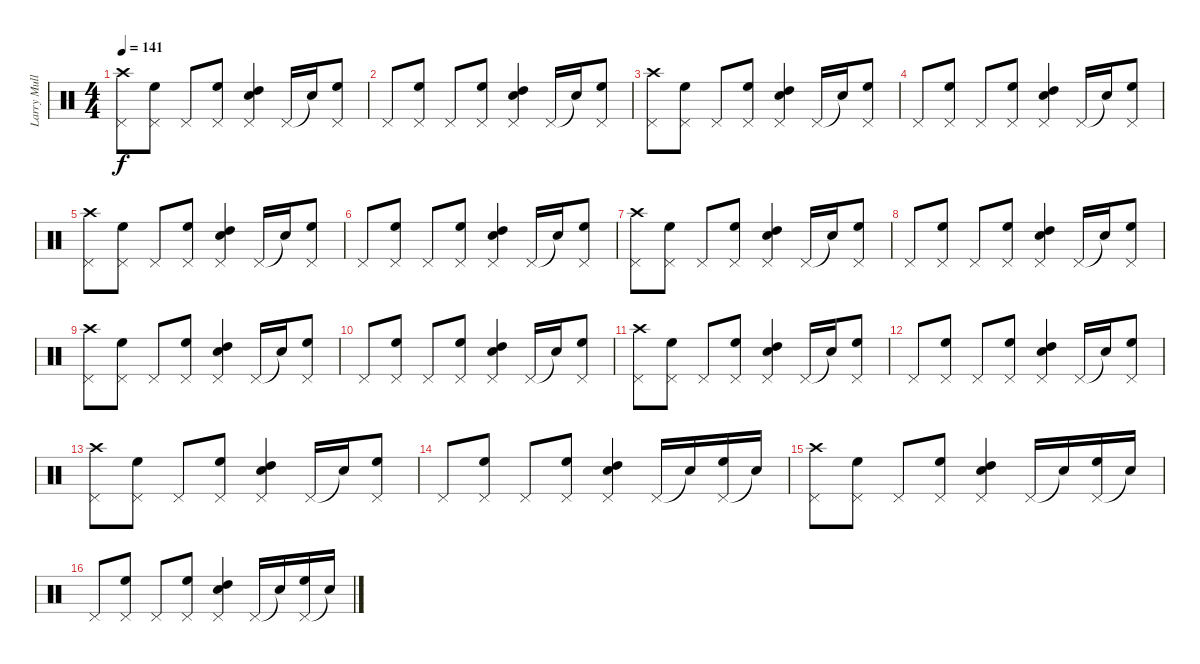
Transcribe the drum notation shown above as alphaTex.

\track ("Larry Mullen Jr's Drums" "Larry Mull") {instrument percussion}
\staff {score}
\articulation defaults
\ts (4 4)
\tempo 141
\clef neutral
\ks c
("Pedal Hi-Hat (hit)" "Crash high (hit)").8{dy f} ("Pedal Hi-Hat (hit)" "High Floor Tom (hit)").8 "Pedal Hi-Hat (hit)".8 ("Pedal Hi-Hat (hit)" "High Floor Tom (hit)").8 ("Pedal Hi-Hat (hit)" "High Tom (hit)" "Electric Snare (hit)").4 "Pedal Hi-Hat (hit)".16 "Snare (hit)"{t}.16 ("Pedal Hi-Hat (hit)" "High Floor Tom (hit)").8 |
"Pedal Hi-Hat (hit)".8 ("Pedal Hi-Hat (hit)" "High Floor Tom (hit)").8 "Pedal Hi-Hat (hit)".8 ("Pedal Hi-Hat (hit)" "High Floor Tom (hit)").8 ("Pedal Hi-Hat (hit)" "High Tom (hit)" "Electric Snare (hit)").4 "Pedal Hi-Hat (hit)".16 "Snare (hit)"{t}.16 ("Pedal Hi-Hat (hit)" "High Floor Tom (hit)").8 |
("Pedal Hi-Hat (hit)" "Crash high (hit)").8 ("Pedal Hi-Hat (hit)" "High Floor Tom (hit)").8 "Pedal Hi-Hat (hit)".8 ("Pedal Hi-Hat (hit)" "High Floor Tom (hit)").8 ("Pedal Hi-Hat (hit)" "High Tom (hit)" "Electric Snare (hit)").4 "Pedal Hi-Hat (hit)".16 "Snare (hit)"{t}.16 ("Pedal Hi-Hat (hit)" "High Floor Tom (hit)").8 |
"Pedal Hi-Hat (hit)".8 ("Pedal Hi-Hat (hit)" "High Floor Tom (hit)").8 "Pedal Hi-Hat (hit)".8 ("Pedal Hi-Hat (hit)" "High Floor Tom (hit)").8 ("Pedal Hi-Hat (hit)" "High Tom (hit)" "Electric Snare (hit)").4 "Pedal Hi-Hat (hit)".16 "Snare (hit)"{t}.16 ("Pedal Hi-Hat (hit)" "High Floor Tom (hit)").8 |
("Pedal Hi-Hat (hit)" "Crash high (hit)").8 ("Pedal Hi-Hat (hit)" "High Floor Tom (hit)").8 "Pedal Hi-Hat (hit)".8 ("Pedal Hi-Hat (hit)" "High Floor Tom (hit)").8 ("Pedal Hi-Hat (hit)" "High Tom (hit)" "Electric Snare (hit)").4 "Pedal Hi-Hat (hit)".16 "Snare (hit)"{t}.16 ("Pedal Hi-Hat (hit)" "High Floor Tom (hit)").8 |
"Pedal Hi-Hat (hit)".8 ("Pedal Hi-Hat (hit)" "High Floor Tom (hit)").8 "Pedal Hi-Hat (hit)".8 ("Pedal Hi-Hat (hit)" "High Floor Tom (hit)").8 ("Pedal Hi-Hat (hit)" "High Tom (hit)" "Electric Snare (hit)").4 "Pedal Hi-Hat (hit)".16 "Snare (hit)"{t}.16 ("Pedal Hi-Hat (hit)" "High Floor Tom (hit)").8 |
("Pedal Hi-Hat (hit)" "Crash high (hit)").8 ("Pedal Hi-Hat (hit)" "High Floor Tom (hit)").8 "Pedal Hi-Hat (hit)".8 ("Pedal Hi-Hat (hit)" "High Floor Tom (hit)").8 ("Pedal Hi-Hat (hit)" "High Tom (hit)" "Electric Snare (hit)").4 "Pedal Hi-Hat (hit)".16 "Snare (hit)"{t}.16 ("Pedal Hi-Hat (hit)" "High Floor Tom (hit)").8 |
"Pedal Hi-Hat (hit)".8 ("Pedal Hi-Hat (hit)" "High Floor Tom (hit)").8 "Pedal Hi-Hat (hit)".8 ("Pedal Hi-Hat (hit)" "High Floor Tom (hit)").8 ("Pedal Hi-Hat (hit)" "High Tom (hit)" "Electric Snare (hit)").4 "Pedal Hi-Hat (hit)".16 "Snare (hit)"{t}.16 ("Pedal Hi-Hat (hit)" "High Floor Tom (hit)").8 |
("Pedal Hi-Hat (hit)" "Crash high (hit)").8 ("Pedal Hi-Hat (hit)" "High Floor Tom (hit)").8 "Pedal Hi-Hat (hit)".8 ("Pedal Hi-Hat (hit)" "High Floor Tom (hit)").8 ("Pedal Hi-Hat (hit)" "High Tom (hit)" "Electric Snare (hit)").4 "Pedal Hi-Hat (hit)".16 "Snare (hit)"{t}.16 ("Pedal Hi-Hat (hit)" "High Floor Tom (hit)").8 |
"Pedal Hi-Hat (hit)".8 ("Pedal Hi-Hat (hit)" "High Floor Tom (hit)").8 "Pedal Hi-Hat (hit)".8 ("Pedal Hi-Hat (hit)" "High Floor Tom (hit)").8 ("Pedal Hi-Hat (hit)" "High Tom (hit)" "Electric Snare (hit)").4 "Pedal Hi-Hat (hit)".16 "Snare (hit)"{t}.16 ("Pedal Hi-Hat (hit)" "High Floor Tom (hit)").8 |
("Pedal Hi-Hat (hit)" "Crash high (hit)").8 ("Pedal Hi-Hat (hit)" "High Floor Tom (hit)").8 "Pedal Hi-Hat (hit)".8 ("Pedal Hi-Hat (hit)" "High Floor Tom (hit)").8 ("Pedal Hi-Hat (hit)" "High Tom (hit)" "Electric Snare (hit)").4 "Pedal Hi-Hat (hit)".16 "Snare (hit)"{t}.16 ("Pedal Hi-Hat (hit)" "High Floor Tom (hit)").8 |
"Pedal Hi-Hat (hit)".8 ("Pedal Hi-Hat (hit)" "High Floor Tom (hit)").8 "Pedal Hi-Hat (hit)".8 ("Pedal Hi-Hat (hit)" "High Floor Tom (hit)").8 ("Pedal Hi-Hat (hit)" "High Tom (hit)" "Electric Snare (hit)").4 "Pedal Hi-Hat (hit)".16 "Snare (hit)"{t}.16 ("Pedal Hi-Hat (hit)" "High Floor Tom (hit)").8 |
("Pedal Hi-Hat (hit)" "Crash high (hit)").8 ("Pedal Hi-Hat (hit)" "High Floor Tom (hit)").8 "Pedal Hi-Hat (hit)".8 ("Pedal Hi-Hat (hit)" "High Floor Tom (hit)").8 ("Pedal Hi-Hat (hit)" "High Tom (hit)" "Electric Snare (hit)").4 "Pedal Hi-Hat (hit)".16 "Snare (hit)"{t}.16 ("Pedal Hi-Hat (hit)" "High Floor Tom (hit)").8 |
"Pedal Hi-Hat (hit)".8 ("Pedal Hi-Hat (hit)" "High Floor Tom (hit)").8 "Pedal Hi-Hat (hit)".8 ("Pedal Hi-Hat (hit)" "High Floor Tom (hit)").8 ("Pedal Hi-Hat (hit)" "High Tom (hit)" "Electric Snare (hit)").4 "Pedal Hi-Hat (hit)".16 "Snare (hit)"{t}.16 ("Pedal Hi-Hat (hit)" "High Floor Tom (hit)").16 "Snare (hit)"{t}.16 |
("Pedal Hi-Hat (hit)" "Crash high (hit)").8 ("Pedal Hi-Hat (hit)" "High Floor Tom (hit)").8 "Pedal Hi-Hat (hit)".8 ("Pedal Hi-Hat (hit)" "High Floor Tom (hit)").8 ("Pedal Hi-Hat (hit)" "High Tom (hit)" "Electric Snare (hit)").4 "Pedal Hi-Hat (hit)".16 "Snare (hit)"{t}.16 ("Pedal Hi-Hat (hit)" "High Floor Tom (hit)").16 "Snare (hit)"{t}.16 |
"Pedal Hi-Hat (hit)".8 ("Pedal Hi-Hat (hit)" "High Floor Tom (hit)").8 "Pedal Hi-Hat (hit)".8 ("Pedal Hi-Hat (hit)" "High Floor Tom (hit)").8 ("Pedal Hi-Hat (hit)" "High Tom (hit)" "Electric Snare (hit)").4 "Pedal Hi-Hat (hit)".16 "Snare (hit)"{t}.16 ("Pedal Hi-Hat (hit)" "High Floor Tom (hit)").16 "Snare (hit)"{t}.16
